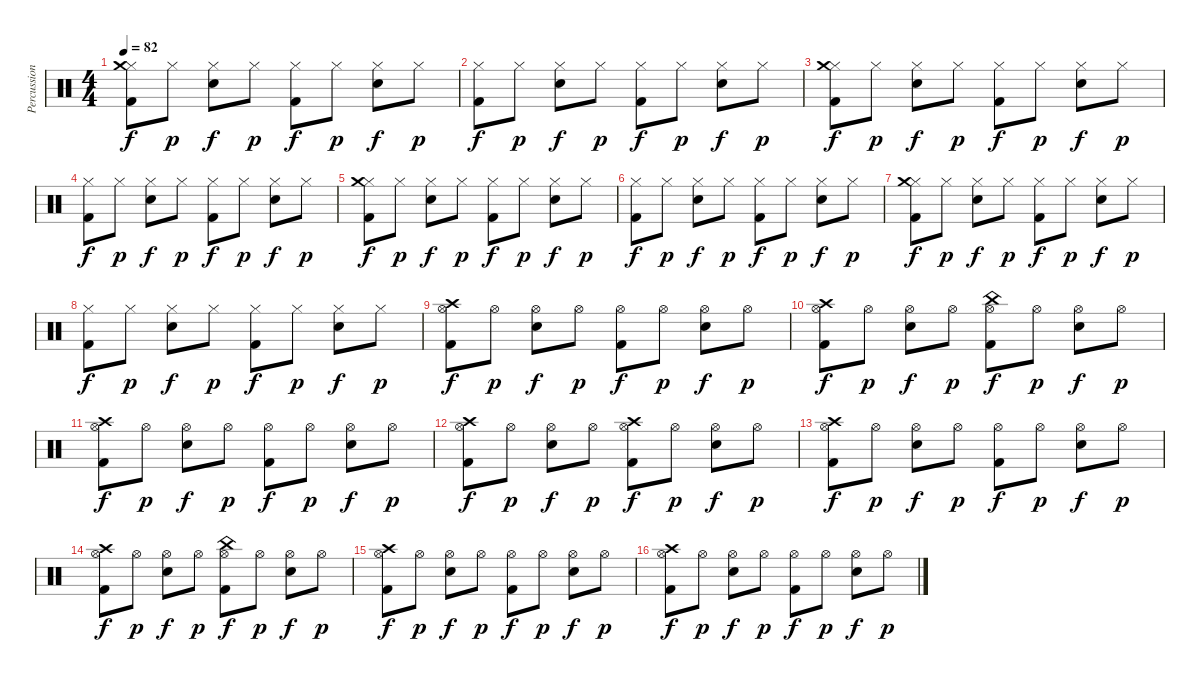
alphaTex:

\track ("Percussion" "Percussion") {instrument percussion}
\staff {score}
\articulation defaults
\ts (4 4)
\tempo 82
\clef neutral
\ks c
("Hi-Hat (closed)" "Crash medium (hit)" "Kick (hit) 2").8{dy f} "Hi-Hat (closed)".8{dy p} ("Hi-Hat (closed)" "Electric Snare (hit)").8{dy f} "Hi-Hat (closed)".8{dy p} ("Hi-Hat (closed)" "Kick (hit) 2").8{dy f} "Hi-Hat (closed)".8{dy p} ("Hi-Hat (closed)" "Electric Snare (hit)").8{dy f} "Hi-Hat (closed)".8{dy p} |
("Hi-Hat (closed)" "Kick (hit) 2").8{dy f} "Hi-Hat (closed)".8{dy p} ("Hi-Hat (closed)" "Electric Snare (hit)").8{dy f} "Hi-Hat (closed)".8{dy p} ("Hi-Hat (closed)" "Kick (hit) 2").8{dy f} "Hi-Hat (closed)".8{dy p} ("Hi-Hat (closed)" "Electric Snare (hit)").8{dy f} "Hi-Hat (closed)".8{dy p} |
("Hi-Hat (closed)" "Crash medium (hit)" "Kick (hit) 2").8{dy f} "Hi-Hat (closed)".8{dy p} ("Hi-Hat (closed)" "Electric Snare (hit)").8{dy f} "Hi-Hat (closed)".8{dy p} ("Hi-Hat (closed)" "Kick (hit) 2").8{dy f} "Hi-Hat (closed)".8{dy p} ("Hi-Hat (closed)" "Electric Snare (hit)").8{dy f} "Hi-Hat (closed)".8{dy p} |
("Hi-Hat (closed)" "Kick (hit) 2").8{dy f} "Hi-Hat (closed)".8{dy p} ("Hi-Hat (closed)" "Electric Snare (hit)").8{dy f} "Hi-Hat (closed)".8{dy p} ("Hi-Hat (closed)" "Kick (hit) 2").8{dy f} "Hi-Hat (closed)".8{dy p} ("Hi-Hat (closed)" "Electric Snare (hit)").8{dy f} "Hi-Hat (closed)".8{dy p} |
("Hi-Hat (closed)" "Crash medium (hit)" "Kick (hit) 2").8{dy f} "Hi-Hat (closed)".8{dy p} ("Hi-Hat (closed)" "Electric Snare (hit)").8{dy f} "Hi-Hat (closed)".8{dy p} ("Hi-Hat (closed)" "Kick (hit) 2").8{dy f} "Hi-Hat (closed)".8{dy p} ("Hi-Hat (closed)" "Electric Snare (hit)").8{dy f} "Hi-Hat (closed)".8{dy p} |
("Hi-Hat (closed)" "Kick (hit) 2").8{dy f} "Hi-Hat (closed)".8{dy p} ("Hi-Hat (closed)" "Electric Snare (hit)").8{dy f} "Hi-Hat (closed)".8{dy p} ("Hi-Hat (closed)" "Kick (hit) 2").8{dy f} "Hi-Hat (closed)".8{dy p} ("Hi-Hat (closed)" "Electric Snare (hit)").8{dy f} "Hi-Hat (closed)".8{dy p} |
("Hi-Hat (closed)" "Crash medium (hit)" "Kick (hit) 2").8{dy f} "Hi-Hat (closed)".8{dy p} ("Hi-Hat (closed)" "Electric Snare (hit)").8{dy f} "Hi-Hat (closed)".8{dy p} ("Hi-Hat (closed)" "Kick (hit) 2").8{dy f} "Hi-Hat (closed)".8{dy p} ("Hi-Hat (closed)" "Electric Snare (hit)").8{dy f} "Hi-Hat (closed)".8{dy p} |
("Hi-Hat (closed)" "Kick (hit) 2").8{dy f} "Hi-Hat (closed)".8{dy p} ("Hi-Hat (closed)" "Electric Snare (hit)").8{dy f} "Hi-Hat (closed)".8{dy p} ("Hi-Hat (closed)" "Kick (hit) 2").8{dy f} "Hi-Hat (closed)".8{dy p} ("Hi-Hat (closed)" "Electric Snare (hit)").8{dy f} "Hi-Hat (closed)".8{dy p} |
("Hi-Hat (open)" "Crash high (hit)" "Kick (hit) 2").8{dy f} "Hi-Hat (open)".8{dy p} ("Hi-Hat (open)" "Electric Snare (hit)").8{dy f} "Hi-Hat (open)".8{dy p} ("Hi-Hat (open)" "Kick (hit) 2").8{dy f} "Hi-Hat (open)".8{dy p} ("Hi-Hat (open)" "Electric Snare (hit)").8{dy f} "Hi-Hat (open)".8{dy p} |
("Hi-Hat (open)" "Crash high (hit)" "Kick (hit) 2").8{dy f} "Hi-Hat (open)".8{dy p} ("Hi-Hat (open)" "Electric Snare (hit)").8{dy f} "Hi-Hat (open)".8{dy p} ("Hi-Hat (open)" "China (hit)" "Kick (hit) 2").8{dy f} "Hi-Hat (open)".8{dy p} ("Hi-Hat (open)" "Electric Snare (hit)").8{dy f} "Hi-Hat (open)".8{dy p} |
("Hi-Hat (open)" "Crash high (hit)" "Kick (hit) 2").8{dy f} "Hi-Hat (open)".8{dy p} ("Hi-Hat (open)" "Electric Snare (hit)").8{dy f} "Hi-Hat (open)".8{dy p} ("Hi-Hat (open)" "Kick (hit) 2").8{dy f} "Hi-Hat (open)".8{dy p} ("Hi-Hat (open)" "Electric Snare (hit)").8{dy f} "Hi-Hat (open)".8{dy p} |
("Hi-Hat (open)" "Crash high (hit)" "Kick (hit) 2").8{dy f} "Hi-Hat (open)".8{dy p} ("Hi-Hat (open)" "Electric Snare (hit)").8{dy f} "Hi-Hat (open)".8{dy p} ("Hi-Hat (open)" "Crash high (hit)" "Kick (hit) 2").8{dy f} "Hi-Hat (open)".8{dy p} ("Hi-Hat (open)" "Electric Snare (hit)").8{dy f} "Hi-Hat (open)".8{dy p} |
("Hi-Hat (open)" "Crash high (hit)" "Kick (hit) 2").8{dy f} "Hi-Hat (open)".8{dy p} ("Hi-Hat (open)" "Electric Snare (hit)").8{dy f} "Hi-Hat (open)".8{dy p} ("Hi-Hat (open)" "Kick (hit) 2").8{dy f} "Hi-Hat (open)".8{dy p} ("Hi-Hat (open)" "Electric Snare (hit)").8{dy f} "Hi-Hat (open)".8{dy p} |
("Hi-Hat (open)" "Crash high (hit)" "Kick (hit) 2").8{dy f} "Hi-Hat (open)".8{dy p} ("Hi-Hat (open)" "Electric Snare (hit)").8{dy f} "Hi-Hat (open)".8{dy p} ("Hi-Hat (open)" "China (hit)" "Kick (hit) 2").8{dy f} "Hi-Hat (open)".8{dy p} ("Hi-Hat (open)" "Electric Snare (hit)").8{dy f} "Hi-Hat (open)".8{dy p} |
("Hi-Hat (open)" "Crash high (hit)" "Kick (hit) 2").8{dy f} "Hi-Hat (open)".8{dy p} ("Hi-Hat (open)" "Electric Snare (hit)").8{dy f} "Hi-Hat (open)".8{dy p} ("Hi-Hat (open)" "Kick (hit) 2").8{dy f} "Hi-Hat (open)".8{dy p} ("Hi-Hat (open)" "Electric Snare (hit)").8{dy f} "Hi-Hat (open)".8{dy p} |
("Hi-Hat (open)" "Crash high (hit)" "Kick (hit) 2").8{dy f} "Hi-Hat (open)".8{dy p} ("Hi-Hat (open)" "Electric Snare (hit)").8{dy f} "Hi-Hat (open)".8{dy p} ("Hi-Hat (open)" "Kick (hit) 2").8{dy f} "Hi-Hat (open)".8{dy p} ("Hi-Hat (open)" "Electric Snare (hit)").8{dy f} "Hi-Hat (open)".8{dy p}
